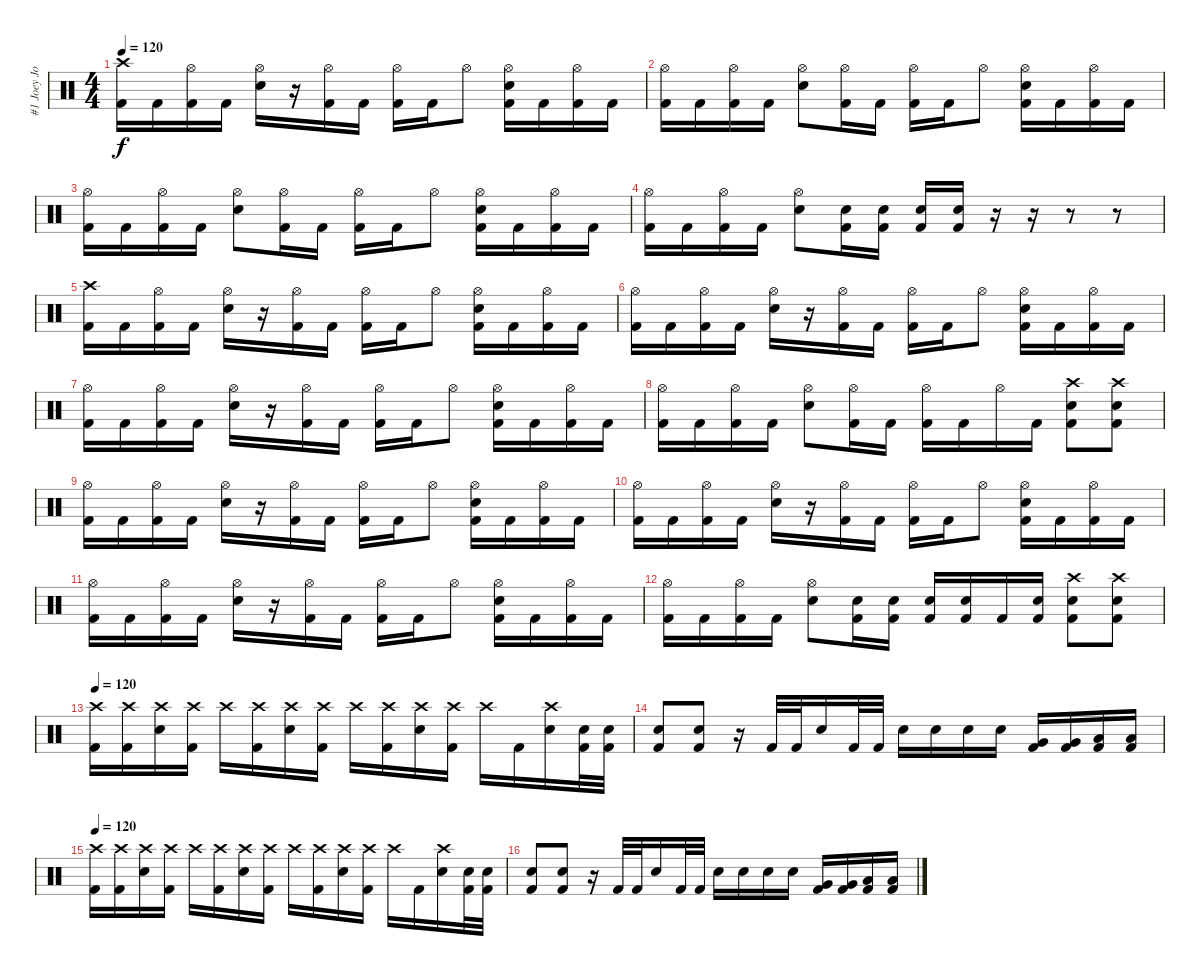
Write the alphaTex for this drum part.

\track ("#1 Joey Jordison" "#1 Joey Jo") {instrument percussion}
\staff {score}
\articulation defaults
\ts (4 4)
\tempo 120
\clef neutral
\ks c
("Crash high (hit)" "Kick (hit) 2").16{dy f} "Kick (hit) 2".16 ("Hi-Hat (open)" "Kick (hit) 2").16 "Kick (hit) 2".16 ("Hi-Hat (open)" "Electric Snare (hit)").16 r.16 ("Hi-Hat (open)" "Kick (hit) 2").16 "Kick (hit) 2".16 ("Hi-Hat (open)" "Kick (hit) 2").16 "Kick (hit) 2".16 "Hi-Hat (open)".8 ("Hi-Hat (open)" "Electric Snare (hit)" "Kick (hit) 2").16 "Kick (hit) 2".16 ("Hi-Hat (open)" "Kick (hit) 2").16 "Kick (hit) 2".16 |
("Hi-Hat (open)" "Kick (hit) 2").16 "Kick (hit) 2".16 ("Hi-Hat (open)" "Kick (hit) 2").16 "Kick (hit) 2".16 ("Hi-Hat (open)" "Electric Snare (hit)").8 ("Hi-Hat (open)" "Kick (hit) 2").16 "Kick (hit) 2".16 ("Hi-Hat (open)" "Kick (hit) 2").16 "Kick (hit) 2".16 "Hi-Hat (open)".8 ("Hi-Hat (open)" "Electric Snare (hit)" "Kick (hit) 2").16 "Kick (hit) 2".16 ("Hi-Hat (open)" "Kick (hit) 2").16 "Kick (hit) 2".16 |
("Hi-Hat (open)" "Kick (hit) 2").16 "Kick (hit) 2".16 ("Hi-Hat (open)" "Kick (hit) 2").16 "Kick (hit) 2".16 ("Hi-Hat (open)" "Electric Snare (hit)").8 ("Hi-Hat (open)" "Kick (hit) 2").16 "Kick (hit) 2".16 ("Hi-Hat (open)" "Kick (hit) 2").16 "Kick (hit) 2".16 "Hi-Hat (open)".8 ("Hi-Hat (open)" "Electric Snare (hit)" "Kick (hit) 2").16 "Kick (hit) 2".16 ("Hi-Hat (open)" "Kick (hit) 2").16 "Kick (hit) 2".16 |
("Hi-Hat (open)" "Kick (hit) 2").16 "Kick (hit) 2".16 ("Hi-Hat (open)" "Kick (hit) 2").16 "Kick (hit) 2".16 ("Hi-Hat (open)" "Electric Snare (hit)").8 ("Electric Snare (hit)" "Kick (hit) 2").16 ("Electric Snare (hit)" "Kick (hit) 2").16 ("Electric Snare (hit)" "Kick (hit) 2").16 ("Electric Snare (hit)" "Kick (hit) 2").16 r.16 r.16 r.8 r.8 |
("Crash high (hit)" "Kick (hit) 2").16 "Kick (hit) 2".16 ("Hi-Hat (open)" "Kick (hit) 2").16 "Kick (hit) 2".16 ("Hi-Hat (open)" "Electric Snare (hit)").16 r.16 ("Hi-Hat (open)" "Kick (hit) 2").16 "Kick (hit) 2".16 ("Hi-Hat (open)" "Kick (hit) 2").16 "Kick (hit) 2".16 "Hi-Hat (open)".8 ("Hi-Hat (open)" "Electric Snare (hit)" "Kick (hit) 2").16 "Kick (hit) 2".16 ("Hi-Hat (open)" "Kick (hit) 2").16 "Kick (hit) 2".16 |
("Hi-Hat (open)" "Kick (hit) 2").16 "Kick (hit) 2".16 ("Hi-Hat (open)" "Kick (hit) 2").16 "Kick (hit) 2".16 ("Hi-Hat (open)" "Electric Snare (hit)").16 r.16 ("Hi-Hat (open)" "Kick (hit) 2").16 "Kick (hit) 2".16 ("Hi-Hat (open)" "Kick (hit) 2").16 "Kick (hit) 2".16 "Hi-Hat (open)".8 ("Hi-Hat (open)" "Electric Snare (hit)" "Kick (hit) 2").16 "Kick (hit) 2".16 ("Hi-Hat (open)" "Kick (hit) 2").16 "Kick (hit) 2".16 |
("Hi-Hat (open)" "Kick (hit) 2").16 "Kick (hit) 2".16 ("Hi-Hat (open)" "Kick (hit) 2").16 "Kick (hit) 2".16 ("Hi-Hat (open)" "Electric Snare (hit)").16 r.16 ("Hi-Hat (open)" "Kick (hit) 2").16 "Kick (hit) 2".16 ("Hi-Hat (open)" "Kick (hit) 2").16 "Kick (hit) 2".16 "Hi-Hat (open)".8 ("Hi-Hat (open)" "Electric Snare (hit)" "Kick (hit) 2").16 "Kick (hit) 2".16 ("Hi-Hat (open)" "Kick (hit) 2").16 "Kick (hit) 2".16 |
("Hi-Hat (open)" "Kick (hit) 2").16 "Kick (hit) 2".16 ("Hi-Hat (open)" "Kick (hit) 2").16 "Kick (hit) 2".16 ("Hi-Hat (open)" "Electric Snare (hit)").8 ("Hi-Hat (open)" "Kick (hit) 2").16 "Kick (hit) 2".16 ("Hi-Hat (open)" "Kick (hit) 2").16 "Kick (hit) 2".16 "Hi-Hat (open)".16 "Kick (hit) 2".16 ("Electric Snare (hit)" "Crash high (hit)" "Kick (hit) 2").8 ("Electric Snare (hit)" "Crash high (hit)" "Kick (hit) 2").8 |
("Hi-Hat (open)" "Kick (hit) 2").16 "Kick (hit) 2".16 ("Hi-Hat (open)" "Kick (hit) 2").16 "Kick (hit) 2".16 ("Hi-Hat (open)" "Electric Snare (hit)").16 r.16 ("Hi-Hat (open)" "Kick (hit) 2").16 "Kick (hit) 2".16 ("Hi-Hat (open)" "Kick (hit) 2").16 "Kick (hit) 2".16 "Hi-Hat (open)".8 ("Hi-Hat (open)" "Electric Snare (hit)" "Kick (hit) 2").16 "Kick (hit) 2".16 ("Hi-Hat (open)" "Kick (hit) 2").16 "Kick (hit) 2".16 |
("Hi-Hat (open)" "Kick (hit) 2").16 "Kick (hit) 2".16 ("Hi-Hat (open)" "Kick (hit) 2").16 "Kick (hit) 2".16 ("Hi-Hat (open)" "Electric Snare (hit)").16 r.16 ("Hi-Hat (open)" "Kick (hit) 2").16 "Kick (hit) 2".16 ("Hi-Hat (open)" "Kick (hit) 2").16 "Kick (hit) 2".16 "Hi-Hat (open)".8 ("Hi-Hat (open)" "Electric Snare (hit)" "Kick (hit) 2").16 "Kick (hit) 2".16 ("Hi-Hat (open)" "Kick (hit) 2").16 "Kick (hit) 2".16 |
("Hi-Hat (open)" "Kick (hit) 2").16 "Kick (hit) 2".16 ("Hi-Hat (open)" "Kick (hit) 2").16 "Kick (hit) 2".16 ("Hi-Hat (open)" "Electric Snare (hit)").16 r.16 ("Hi-Hat (open)" "Kick (hit) 2").16 "Kick (hit) 2".16 ("Hi-Hat (open)" "Kick (hit) 2").16 "Kick (hit) 2".16 "Hi-Hat (open)".8 ("Hi-Hat (open)" "Electric Snare (hit)" "Kick (hit) 2").16 "Kick (hit) 2".16 ("Hi-Hat (open)" "Kick (hit) 2").16 "Kick (hit) 2".16 |
("Hi-Hat (open)" "Kick (hit) 2").16 "Kick (hit) 2".16 ("Hi-Hat (open)" "Kick (hit) 2").16 "Kick (hit) 2".16 ("Hi-Hat (open)" "Electric Snare (hit)").8 ("Electric Snare (hit)" "Kick (hit) 2").16 ("Electric Snare (hit)" "Kick (hit) 2").16 ("Electric Snare (hit)" "Kick (hit) 2").16 ("Electric Snare (hit)" "Kick (hit) 2").16 "Kick (hit) 2".16 ("Electric Snare (hit)" "Kick (hit) 2").16 ("Electric Snare (hit)" "Crash high (hit)" "Kick (hit) 2").8 ("Electric Snare (hit)" "Crash high (hit)" "Kick (hit) 2").8 |
\tempo 120
("Crash high (hit)" "Kick (hit) 2").16 ("Crash high (hit)" "Kick (hit) 2").16 ("Crash high (hit)" "Electric Snare (hit)").16 ("Crash high (hit)" "Kick (hit) 2").16 "Crash high (hit)".16 ("Crash high (hit)" "Kick (hit) 2").16 ("Crash high (hit)" "Electric Snare (hit)").16 ("Crash high (hit)" "Kick (hit) 2").16 "Crash high (hit)".16 ("Crash high (hit)" "Kick (hit) 2").16 ("Crash high (hit)" "Electric Snare (hit)").16 ("Crash high (hit)" "Kick (hit) 2").16 "Crash high (hit)".16 "Kick (hit) 2".16 ("Crash high (hit)" "Electric Snare (hit)").16 ("Electric Snare (hit)" "Kick (hit) 2").32 ("Electric Snare (hit)" "Kick (hit) 2").32 |
("Electric Snare (hit)" "Kick (hit) 2").8 ("Electric Snare (hit)" "Kick (hit) 2").8 r.16 "Kick (hit) 2".32 "Kick (hit) 2".32 "Electric Snare (hit)".16 "Kick (hit) 2".32 "Kick (hit) 2".32 "Electric Snare (hit)".16 "Electric Snare (hit)".16 "Snare (hit) 2".16 "Snare (hit) 2".16 ("Very Low Tom (hit)" "Kick (hit) 2").16 ("Very Low Tom (hit)" "Kick (hit) 2").16 ("Low Floor Tom (hit)" "Kick (hit) 2").16 ("Low Floor Tom (hit)" "Kick (hit) 2").16 |
\tempo 120
("Crash high (hit)" "Kick (hit) 2").16 ("Crash high (hit)" "Kick (hit) 2").16 ("Crash high (hit)" "Electric Snare (hit)").16 ("Crash high (hit)" "Kick (hit) 2").16 "Crash high (hit)".16 ("Crash high (hit)" "Kick (hit) 2").16 ("Crash high (hit)" "Electric Snare (hit)").16 ("Crash high (hit)" "Kick (hit) 2").16 "Crash high (hit)".16 ("Crash high (hit)" "Kick (hit) 2").16 ("Crash high (hit)" "Electric Snare (hit)").16 ("Crash high (hit)" "Kick (hit) 2").16 "Crash high (hit)".16 "Kick (hit) 2".16 ("Crash high (hit)" "Electric Snare (hit)").16 ("Electric Snare (hit)" "Kick (hit) 2").32 ("Electric Snare (hit)" "Kick (hit) 2").32 |
("Electric Snare (hit)" "Kick (hit) 2").8 ("Electric Snare (hit)" "Kick (hit) 2").8 r.16 "Kick (hit) 2".32 "Kick (hit) 2".32 "Electric Snare (hit)".16 "Kick (hit) 2".32 "Kick (hit) 2".32 "Electric Snare (hit)".16 "Electric Snare (hit)".16 "Snare (hit) 2".16 "Snare (hit) 2".16 ("Very Low Tom (hit)" "Kick (hit) 2").16 ("Very Low Tom (hit)" "Kick (hit) 2").16 ("Low Floor Tom (hit)" "Kick (hit) 2").16 ("Low Floor Tom (hit)" "Kick (hit) 2").16
